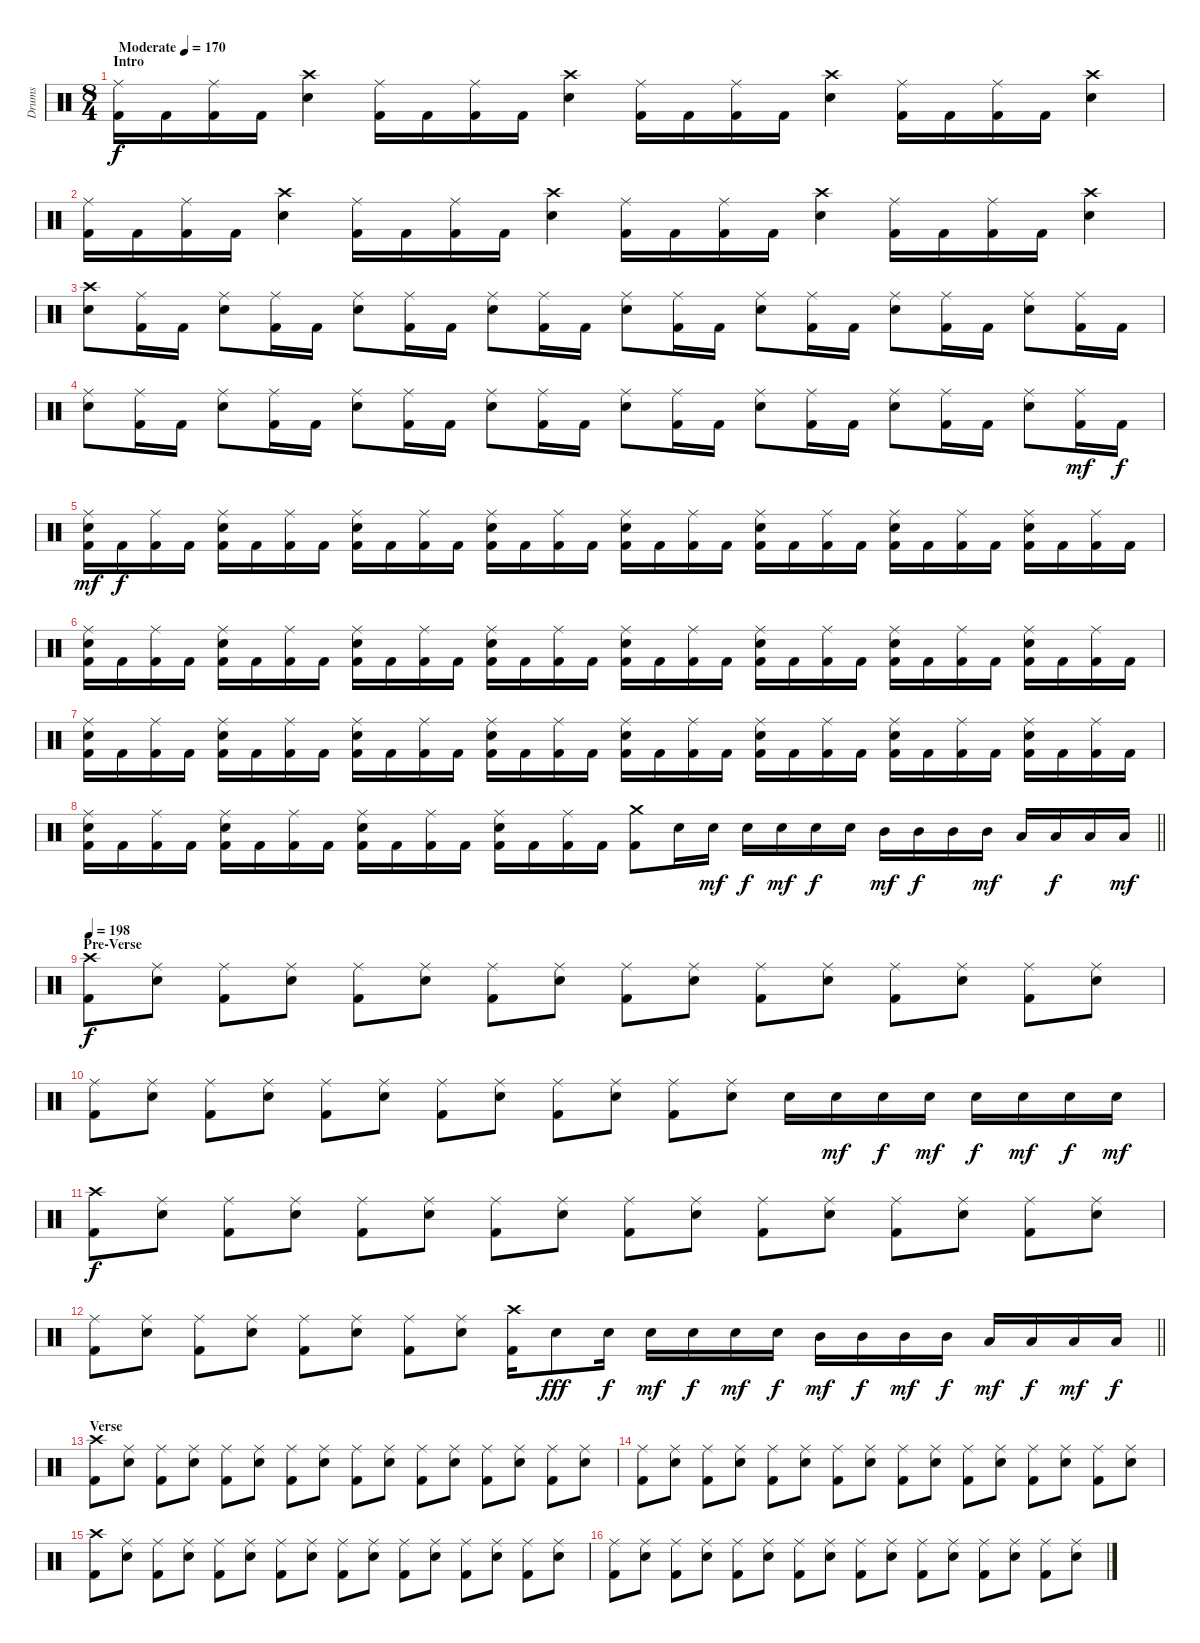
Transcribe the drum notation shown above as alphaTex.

\track ("Drums" "Drums") {instrument percussion}
\staff {score}
\articulation defaults
\ts (8 4)
\section ("" "Intro")
\tempo (170 "Moderate")
\tempo 169
\tempo (170 "Moderate")
\clef neutral
\ks c
("Ride (middle)" "Kick (hit) 2").16{dy f} "Kick (hit) 2".16 ("Ride (middle)" "Kick (hit) 2").16 "Kick (hit) 2".16 ("Crash high (hit)" "Snare (hit) 2").4 ("Ride (middle)" "Kick (hit) 2").16 "Kick (hit) 2".16 ("Ride (middle)" "Kick (hit) 2").16 "Kick (hit) 2".16 ("Crash high (hit)" "Snare (hit) 2").4 ("Ride (middle)" "Kick (hit) 2").16 "Kick (hit) 2".16 ("Ride (middle)" "Kick (hit) 2").16 "Kick (hit) 2".16 ("Crash high (hit)" "Snare (hit) 2").4 ("Ride (middle)" "Kick (hit) 2").16 "Kick (hit) 2".16 ("Ride (middle)" "Kick (hit) 2").16 "Kick (hit) 2".16 ("Crash high (hit)" "Snare (hit) 2").4 |
("Ride (middle)" "Kick (hit) 2").16 "Kick (hit) 2".16 ("Ride (middle)" "Kick (hit) 2").16 "Kick (hit) 2".16 ("Crash high (hit)" "Snare (hit) 2").4 ("Ride (middle)" "Kick (hit) 2").16 "Kick (hit) 2".16 ("Ride (middle)" "Kick (hit) 2").16 "Kick (hit) 2".16 ("Crash high (hit)" "Snare (hit) 2").4 ("Ride (middle)" "Kick (hit) 2").16 "Kick (hit) 2".16 ("Ride (middle)" "Kick (hit) 2").16 "Kick (hit) 2".16 ("Crash high (hit)" "Snare (hit) 2").4 ("Ride (middle)" "Kick (hit) 2").16 "Kick (hit) 2".16 ("Ride (middle)" "Kick (hit) 2").16 "Kick (hit) 2".16 ("Crash high (hit)" "Snare (hit) 2").4 |
("Crash high (hit)" "Snare (hit) 2").8 ("Ride (middle)" "Kick (hit) 2").16 "Kick (hit) 2".16 ("Ride (middle)" "Snare (hit) 2").8 ("Ride (middle)" "Kick (hit) 2").16 "Kick (hit) 2".16 ("Ride (middle)" "Snare (hit) 2").8 ("Ride (middle)" "Kick (hit) 2").16 "Kick (hit) 2".16 ("Ride (middle)" "Snare (hit) 2").8 ("Ride (middle)" "Kick (hit) 2").16 "Kick (hit) 2".16 ("Ride (middle)" "Snare (hit) 2").8 ("Ride (middle)" "Kick (hit) 2").16 "Kick (hit) 2".16 ("Ride (middle)" "Snare (hit) 2").8 ("Ride (middle)" "Kick (hit) 2").16 "Kick (hit) 2".16 ("Ride (middle)" "Snare (hit) 2").8 ("Ride (middle)" "Kick (hit) 2").16 "Kick (hit) 2".16 ("Ride (middle)" "Snare (hit) 2").8 ("Ride (middle)" "Kick (hit) 2").16 "Kick (hit) 2".16 |
("Ride (middle)" "Snare (hit) 2").8 ("Ride (middle)" "Kick (hit) 2").16 "Kick (hit) 2".16 ("Ride (middle)" "Snare (hit) 2").8 ("Ride (middle)" "Kick (hit) 2").16 "Kick (hit) 2".16 ("Ride (middle)" "Snare (hit) 2").8 ("Ride (middle)" "Kick (hit) 2").16 "Kick (hit) 2".16 ("Ride (middle)" "Snare (hit) 2").8 ("Ride (middle)" "Kick (hit) 2").16 "Kick (hit) 2".16 ("Ride (middle)" "Snare (hit) 2").8 ("Ride (middle)" "Kick (hit) 2").16 "Kick (hit) 2".16 ("Ride (middle)" "Snare (hit) 2").8 ("Ride (middle)" "Kick (hit) 2").16 "Kick (hit) 2".16 ("Ride (middle)" "Snare (hit) 2").8 ("Ride (middle)" "Kick (hit) 2").16 "Kick (hit) 2".16 ("Ride (middle)" "Snare (hit) 2").8 ("Ride (middle)" "Kick (hit) 2").16{dy mf} "Kick (hit) 2".16{dy f} |
("Ride (middle)" "Snare (hit) 2" "Kick (hit) 2").16{dy mf} "Kick (hit) 2".16{dy f} ("Ride (middle)" "Kick (hit) 2").16 "Kick (hit) 2".16 ("Ride (middle)" "Snare (hit) 2" "Kick (hit) 2").16 "Kick (hit) 2".16 ("Ride (middle)" "Kick (hit) 2").16 "Kick (hit) 2".16 ("Ride (middle)" "Snare (hit) 2" "Kick (hit) 2").16 "Kick (hit) 2".16 ("Ride (middle)" "Kick (hit) 2").16 "Kick (hit) 2".16 ("Ride (middle)" "Snare (hit) 2" "Kick (hit) 2").16 "Kick (hit) 2".16 ("Ride (middle)" "Kick (hit) 2").16 "Kick (hit) 2".16 ("Ride (middle)" "Snare (hit) 2" "Kick (hit) 2").16 "Kick (hit) 2".16 ("Ride (middle)" "Kick (hit) 2").16 "Kick (hit) 2".16 ("Ride (middle)" "Snare (hit) 2" "Kick (hit) 2").16 "Kick (hit) 2".16 ("Ride (middle)" "Kick (hit) 2").16 "Kick (hit) 2".16 ("Ride (middle)" "Snare (hit) 2" "Kick (hit) 2").16 "Kick (hit) 2".16 ("Ride (middle)" "Kick (hit) 2").16 "Kick (hit) 2".16 ("Ride (middle)" "Snare (hit) 2" "Kick (hit) 2").16 "Kick (hit) 2".16 ("Ride (middle)" "Kick (hit) 2").16 "Kick (hit) 2".16 |
("Ride (middle)" "Snare (hit) 2" "Kick (hit) 2").16 "Kick (hit) 2".16 ("Ride (middle)" "Kick (hit) 2").16 "Kick (hit) 2".16 ("Ride (middle)" "Snare (hit) 2" "Kick (hit) 2").16 "Kick (hit) 2".16 ("Ride (middle)" "Kick (hit) 2").16 "Kick (hit) 2".16 ("Ride (middle)" "Snare (hit) 2" "Kick (hit) 2").16 "Kick (hit) 2".16 ("Ride (middle)" "Kick (hit) 2").16 "Kick (hit) 2".16 ("Ride (middle)" "Snare (hit) 2" "Kick (hit) 2").16 "Kick (hit) 2".16 ("Ride (middle)" "Kick (hit) 2").16 "Kick (hit) 2".16 ("Ride (middle)" "Snare (hit) 2" "Kick (hit) 2").16 "Kick (hit) 2".16 ("Ride (middle)" "Kick (hit) 2").16 "Kick (hit) 2".16 ("Ride (middle)" "Snare (hit) 2" "Kick (hit) 2").16 "Kick (hit) 2".16 ("Ride (middle)" "Kick (hit) 2").16 "Kick (hit) 2".16 ("Ride (middle)" "Snare (hit) 2" "Kick (hit) 2").16 "Kick (hit) 2".16 ("Ride (middle)" "Kick (hit) 2").16 "Kick (hit) 2".16 ("Ride (middle)" "Snare (hit) 2" "Kick (hit) 2").16 "Kick (hit) 2".16 ("Ride (middle)" "Kick (hit) 2").16 "Kick (hit) 2".16 |
("Ride (middle)" "Snare (hit) 2" "Kick (hit) 2").16 "Kick (hit) 2".16 ("Ride (middle)" "Kick (hit) 2").16 "Kick (hit) 2".16 ("Ride (middle)" "Snare (hit) 2" "Kick (hit) 2").16 "Kick (hit) 2".16 ("Ride (middle)" "Kick (hit) 2").16 "Kick (hit) 2".16 ("Ride (middle)" "Snare (hit) 2" "Kick (hit) 2").16 "Kick (hit) 2".16 ("Ride (middle)" "Kick (hit) 2").16 "Kick (hit) 2".16 ("Ride (middle)" "Snare (hit) 2" "Kick (hit) 2").16 "Kick (hit) 2".16 ("Ride (middle)" "Kick (hit) 2").16 "Kick (hit) 2".16 ("Ride (middle)" "Snare (hit) 2" "Kick (hit) 2").16 "Kick (hit) 2".16 ("Ride (middle)" "Kick (hit) 2").16 "Kick (hit) 2".16 ("Ride (middle)" "Snare (hit) 2" "Kick (hit) 2").16 "Kick (hit) 2".16 ("Ride (middle)" "Kick (hit) 2").16 "Kick (hit) 2".16 ("Ride (middle)" "Snare (hit) 2" "Kick (hit) 2").16 "Kick (hit) 2".16 ("Ride (middle)" "Kick (hit) 2").16 "Kick (hit) 2".16 ("Ride (middle)" "Snare (hit) 2" "Kick (hit) 2").16 "Kick (hit) 2".16 ("Ride (middle)" "Kick (hit) 2").16 "Kick (hit) 2".16 |
\barLineRight lightlight
("Ride (middle)" "Snare (hit) 2" "Kick (hit) 2").16 "Kick (hit) 2".16 ("Ride (middle)" "Kick (hit) 2").16 "Kick (hit) 2".16 ("Ride (middle)" "Snare (hit) 2" "Kick (hit) 2").16 "Kick (hit) 2".16 ("Ride (middle)" "Kick (hit) 2").16 "Kick (hit) 2".16 ("Ride (middle)" "Snare (hit) 2" "Kick (hit) 2").16 "Kick (hit) 2".16 ("Ride (middle)" "Kick (hit) 2").16 "Kick (hit) 2".16 ("Ride (middle)" "Snare (hit) 2" "Kick (hit) 2").16 "Kick (hit) 2".16 ("Ride (middle)" "Kick (hit) 2").16 "Kick (hit) 2".16 ("Crash medium (hit)" "Kick (hit) 2").8 "Snare (hit) 2".16 "Snare (hit) 2".16{dy mf} "Snare (hit) 2".16{dy f} "Snare (hit) 2".16{dy mf} "Snare (hit) 2".16{dy f} "Snare (hit) 2".16 "Mid Tom (hit)".16{dy mf} "Mid Tom (hit)".16{dy f} "Mid Tom (hit)".16 "Mid Tom (hit)".16{dy mf} "Low Tom (hit)".16 "Low Tom (hit)".16{dy f} "Low Tom (hit)".16 "Low Tom (hit)".16{dy mf} |
\section ("" "Pre-Verse")
\tempo 198
("Crash high (hit)" "Kick (hit) 2").8{dy f} ("Ride (middle)" "Snare (hit) 2").8 ("Ride (middle)" "Kick (hit) 2").8 ("Ride (middle)" "Snare (hit) 2").8 ("Ride (middle)" "Kick (hit) 2").8 ("Ride (middle)" "Snare (hit) 2").8 ("Ride (middle)" "Kick (hit) 2").8 ("Ride (middle)" "Snare (hit) 2").8 ("Ride (middle)" "Kick (hit) 2").8 ("Ride (middle)" "Snare (hit) 2").8 ("Ride (middle)" "Kick (hit) 2").8 ("Ride (middle)" "Snare (hit) 2").8 ("Ride (middle)" "Kick (hit) 2").8 ("Ride (middle)" "Snare (hit) 2").8 ("Ride (middle)" "Kick (hit) 2").8 ("Ride (middle)" "Snare (hit) 2").8 |
("Ride (middle)" "Kick (hit) 2").8 ("Ride (middle)" "Snare (hit) 2").8 ("Ride (middle)" "Kick (hit) 2").8 ("Ride (middle)" "Snare (hit) 2").8 ("Ride (middle)" "Kick (hit) 2").8 ("Ride (middle)" "Snare (hit) 2").8 ("Ride (middle)" "Kick (hit) 2").8 ("Ride (middle)" "Snare (hit) 2").8 ("Ride (middle)" "Kick (hit) 2").8 ("Ride (middle)" "Snare (hit) 2").8 ("Ride (middle)" "Kick (hit) 2").8 ("Ride (middle)" "Snare (hit) 2").8 "Snare (hit) 2".16 "Snare (hit) 2".16{dy mf} "Snare (hit) 2".16{dy f} "Snare (hit) 2".16{dy mf} "Snare (hit) 2".16{dy f} "Snare (hit) 2".16{dy mf} "Snare (hit) 2".16{dy f} "Snare (hit) 2".16{dy mf} |
("Crash high (hit)" "Kick (hit) 2").8{dy f} ("Ride (middle)" "Snare (hit) 2").8 ("Ride (middle)" "Kick (hit) 2").8 ("Ride (middle)" "Snare (hit) 2").8 ("Ride (middle)" "Kick (hit) 2").8 ("Ride (middle)" "Snare (hit) 2").8 ("Ride (middle)" "Kick (hit) 2").8 ("Ride (middle)" "Snare (hit) 2").8 ("Ride (middle)" "Kick (hit) 2").8 ("Ride (middle)" "Snare (hit) 2").8 ("Ride (middle)" "Kick (hit) 2").8 ("Ride (middle)" "Snare (hit) 2").8 ("Ride (middle)" "Kick (hit) 2").8 ("Ride (middle)" "Snare (hit) 2").8 ("Ride (middle)" "Kick (hit) 2").8 ("Ride (middle)" "Snare (hit) 2").8 |
\barLineRight lightlight
("Ride (middle)" "Kick (hit) 2").8 ("Ride (middle)" "Snare (hit) 2").8 ("Ride (middle)" "Kick (hit) 2").8 ("Ride (middle)" "Snare (hit) 2").8 ("Ride (middle)" "Kick (hit) 2").8 ("Ride (middle)" "Snare (hit) 2").8 ("Ride (middle)" "Kick (hit) 2").8 ("Ride (middle)" "Snare (hit) 2").8 ("Crash high (hit)" "Kick (hit) 2").16 "Snare (hit) 2".8{dy fff} "Snare (hit) 2".16{dy f} "Snare (hit) 2".16{dy mf} "Snare (hit) 2".16{dy f} "Snare (hit) 2".16{dy mf} "Snare (hit) 2".16{dy f} "Mid Tom (hit)".16{dy mf} "Mid Tom (hit)".16{dy f} "Mid Tom (hit)".16{dy mf} "Mid Tom (hit)".16{dy f} "Low Tom (hit)".16{dy mf} "Low Tom (hit)".16{dy f} "Low Tom (hit)".16{dy mf} "Low Tom (hit)".16{dy f} |
\section ("" "Verse")
("Crash high (hit)" "Kick (hit) 2").8 ("Ride (middle)" "Snare (hit) 2").8 ("Ride (middle)" "Kick (hit) 2").8 ("Ride (middle)" "Snare (hit) 2").8 ("Ride (middle)" "Kick (hit) 2").8 ("Ride (middle)" "Snare (hit) 2").8 ("Ride (middle)" "Kick (hit) 2").8 ("Ride (middle)" "Snare (hit) 2").8 ("Ride (middle)" "Kick (hit) 2").8 ("Ride (middle)" "Snare (hit) 2").8 ("Ride (middle)" "Kick (hit) 2").8 ("Ride (middle)" "Snare (hit) 2").8 ("Ride (middle)" "Kick (hit) 2").8 ("Ride (middle)" "Snare (hit) 2").8 ("Ride (middle)" "Kick (hit) 2").8 ("Ride (middle)" "Snare (hit) 2").8 |
("Ride (middle)" "Kick (hit) 2").8 ("Ride (middle)" "Snare (hit) 2").8 ("Ride (middle)" "Kick (hit) 2").8 ("Ride (middle)" "Snare (hit) 2").8 ("Ride (middle)" "Kick (hit) 2").8 ("Ride (middle)" "Snare (hit) 2").8 ("Ride (middle)" "Kick (hit) 2").8 ("Ride (middle)" "Snare (hit) 2").8 ("Ride (middle)" "Kick (hit) 2").8 ("Ride (middle)" "Snare (hit) 2").8 ("Ride (middle)" "Kick (hit) 2").8 ("Ride (middle)" "Snare (hit) 2").8 ("Ride (middle)" "Kick (hit) 2").8 ("Ride (middle)" "Snare (hit) 2").8 ("Ride (middle)" "Kick (hit) 2").8 ("Ride (middle)" "Snare (hit) 2").8 |
("Crash high (hit)" "Kick (hit) 2").8 ("Ride (middle)" "Snare (hit) 2").8 ("Ride (middle)" "Kick (hit) 2").8 ("Ride (middle)" "Snare (hit) 2").8 ("Ride (middle)" "Kick (hit) 2").8 ("Ride (middle)" "Snare (hit) 2").8 ("Ride (middle)" "Kick (hit) 2").8 ("Ride (middle)" "Snare (hit) 2").8 ("Ride (middle)" "Kick (hit) 2").8 ("Ride (middle)" "Snare (hit) 2").8 ("Ride (middle)" "Kick (hit) 2").8 ("Ride (middle)" "Snare (hit) 2").8 ("Ride (middle)" "Kick (hit) 2").8 ("Ride (middle)" "Snare (hit) 2").8 ("Ride (middle)" "Kick (hit) 2").8 ("Ride (middle)" "Snare (hit) 2").8 |
("Ride (middle)" "Kick (hit) 2").8 ("Ride (middle)" "Snare (hit) 2").8 ("Ride (middle)" "Kick (hit) 2").8 ("Ride (middle)" "Snare (hit) 2").8 ("Ride (middle)" "Kick (hit) 2").8 ("Ride (middle)" "Snare (hit) 2").8 ("Ride (middle)" "Kick (hit) 2").8 ("Ride (middle)" "Snare (hit) 2").8 ("Ride (middle)" "Kick (hit) 2").8 ("Ride (middle)" "Snare (hit) 2").8 ("Ride (middle)" "Kick (hit) 2").8 ("Ride (middle)" "Snare (hit) 2").8 ("Ride (middle)" "Kick (hit) 2").8 ("Ride (middle)" "Snare (hit) 2").8 ("Ride (middle)" "Kick (hit) 2").8 ("Ride (middle)" "Snare (hit) 2").8
